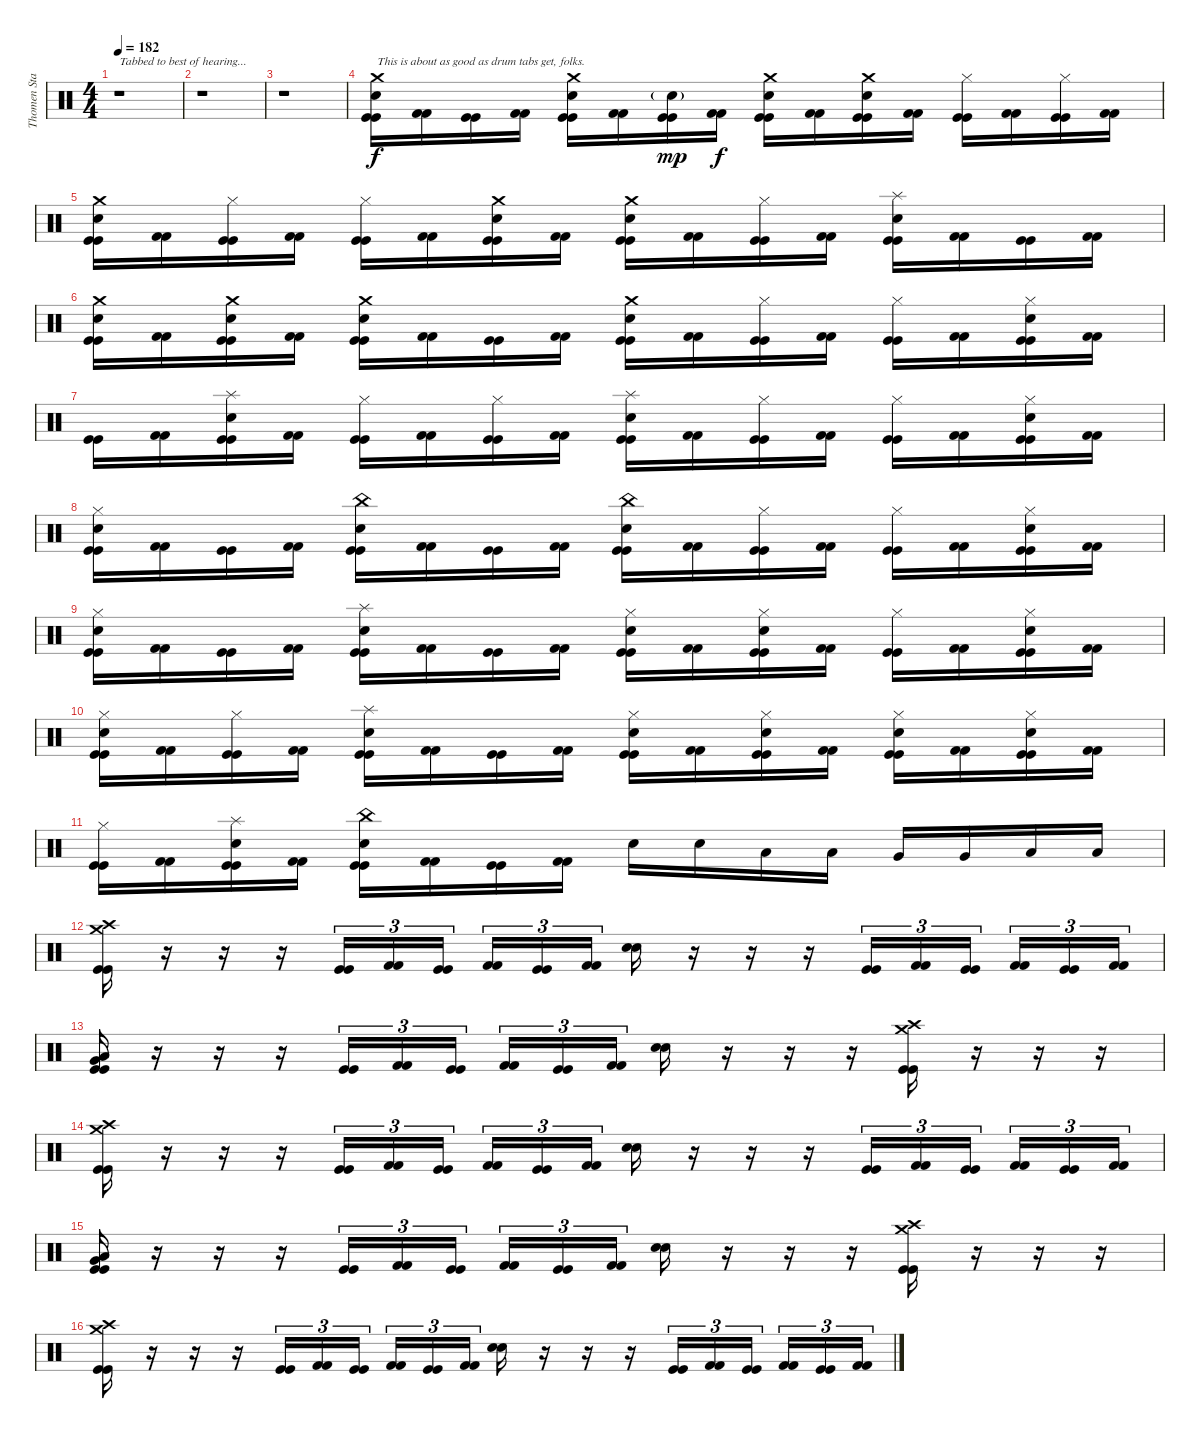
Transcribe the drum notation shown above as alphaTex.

\track ("Thomen Stauch" "Thomen Sta") {instrument percussion}
\staff {score}
\articulation defaults
\ts (4 4)
\tempo 182
\clef neutral
\ks c
r.1{txt "Tabbed to best of hearing..." dy f} |
r.1 |
r.1 |
("Crash medium (hit)" "Snare (hit) 2" "Kick (hit)" "Kick (hit)").16{txt "This is about as good as drum tabs get, folks."} ("Kick (hit) 2" "Kick (hit) 2").16 ("Kick (hit)" "Kick (hit)").16 ("Kick (hit) 2" "Kick (hit) 2").16 ("Crash medium (hit)" "Snare (hit) 2" "Kick (hit)" "Kick (hit)").16 ("Kick (hit) 2" "Kick (hit) 2").16 ("Snare (hit) 2"{g} "Kick (hit)" "Kick (hit)").16{dy mp} ("Kick (hit) 2" "Kick (hit) 2").16{dy f} ("Crash medium (hit)" "Snare (hit) 2" "Kick (hit)" "Kick (hit)").16 ("Kick (hit) 2" "Kick (hit) 2").16 ("Crash medium (hit)" "Snare (hit) 2" "Kick (hit)" "Kick (hit)").16 ("Kick (hit) 2" "Kick (hit) 2").16 ("Hi-Hat (closed)" "Kick (hit)" "Kick (hit)").16 ("Kick (hit) 2" "Kick (hit) 2").16 ("Hi-Hat (closed)" "Kick (hit)" "Kick (hit)").16 ("Kick (hit) 2" "Kick (hit) 2").16 |
("Crash medium (hit)" "Snare (hit) 2" "Kick (hit)" "Kick (hit)").16 ("Kick (hit) 2" "Kick (hit) 2").16 ("Hi-Hat (closed)" "Kick (hit)" "Kick (hit)").16 ("Kick (hit) 2" "Kick (hit) 2").16 ("Hi-Hat (closed)" "Kick (hit)" "Kick (hit)").16 ("Kick (hit) 2" "Kick (hit) 2").16 ("Crash medium (hit)" "Snare (hit) 2" "Kick (hit)" "Kick (hit)").16 ("Kick (hit) 2" "Kick (hit) 2").16 ("Crash medium (hit)" "Snare (hit) 2" "Kick (hit)" "Kick (hit)").16 ("Kick (hit) 2" "Kick (hit) 2").16 ("Hi-Hat (closed)" "Kick (hit)" "Kick (hit)").16 ("Kick (hit) 2" "Kick (hit) 2").16 ("Splash (hit)" "Snare (hit) 2" "Kick (hit)" "Kick (hit)").16 ("Kick (hit) 2" "Kick (hit) 2").16 ("Kick (hit)" "Kick (hit)").16 ("Kick (hit) 2" "Kick (hit) 2").16 |
("Crash medium (hit)" "Snare (hit) 2" "Kick (hit)" "Kick (hit)").16 ("Kick (hit) 2" "Kick (hit) 2").16 ("Crash medium (hit)" "Snare (hit) 2" "Kick (hit)" "Kick (hit)").16 ("Kick (hit) 2" "Kick (hit) 2").16 ("Crash medium (hit)" "Snare (hit) 2" "Kick (hit)" "Kick (hit)").16 ("Kick (hit) 2" "Kick (hit) 2").16 ("Kick (hit)" "Kick (hit)").16 ("Kick (hit) 2" "Kick (hit) 2").16 ("Crash medium (hit)" "Snare (hit) 2" "Kick (hit)" "Kick (hit)").16 ("Kick (hit) 2" "Kick (hit) 2").16 ("Hi-Hat (closed)" "Kick (hit)" "Kick (hit)").16 ("Kick (hit) 2" "Kick (hit) 2").16 ("Hi-Hat (closed)" "Kick (hit)" "Kick (hit)").16 ("Kick (hit) 2" "Kick (hit) 2").16 ("Hi-Hat (closed)" "Snare (hit) 2" "Kick (hit)" "Kick (hit)").16 ("Kick (hit) 2" "Kick (hit) 2").16 |
("Kick (hit)" "Kick (hit)").16 ("Kick (hit) 2" "Kick (hit) 2").16 ("Splash (hit)" "Snare (hit) 2" "Kick (hit)" "Kick (hit)").16 ("Kick (hit) 2" "Kick (hit) 2").16 ("Hi-Hat (closed)" "Kick (hit)" "Kick (hit)").16 ("Kick (hit) 2" "Kick (hit) 2").16 ("Hi-Hat (closed)" "Kick (hit)" "Kick (hit)").16 ("Kick (hit) 2" "Kick (hit) 2").16 ("Splash (hit)" "Snare (hit) 2" "Kick (hit)" "Kick (hit)").16 ("Kick (hit) 2" "Kick (hit) 2").16 ("Hi-Hat (closed)" "Kick (hit)" "Kick (hit)").16 ("Kick (hit) 2" "Kick (hit) 2").16 ("Hi-Hat (closed)" "Kick (hit)" "Kick (hit)").16 ("Kick (hit) 2" "Kick (hit) 2").16 ("Hi-Hat (closed)" "Snare (hit) 2" "Kick (hit)" "Kick (hit)").16 ("Kick (hit) 2" "Kick (hit) 2").16 |
("Hi-Hat (closed)" "Snare (hit) 2" "Kick (hit)" "Kick (hit)").16 ("Kick (hit) 2" "Kick (hit) 2").16 ("Kick (hit)" "Kick (hit)").16 ("Kick (hit) 2" "Kick (hit) 2").16 ("China (hit)" "Snare (hit) 2" "Kick (hit)" "Kick (hit)").16 ("Kick (hit) 2" "Kick (hit) 2").16 ("Kick (hit)" "Kick (hit)").16 ("Kick (hit) 2" "Kick (hit) 2").16 ("China (hit)" "Snare (hit) 2" "Kick (hit)" "Kick (hit)").16 ("Kick (hit) 2" "Kick (hit) 2").16 ("Hi-Hat (closed)" "Kick (hit)" "Kick (hit)").16 ("Kick (hit) 2" "Kick (hit) 2").16 ("Hi-Hat (closed)" "Kick (hit)" "Kick (hit)").16 ("Kick (hit) 2" "Kick (hit) 2").16 ("Hi-Hat (closed)" "Snare (hit) 2" "Kick (hit)" "Kick (hit)").16 ("Kick (hit) 2" "Kick (hit) 2").16 |
("Hi-Hat (closed)" "Snare (hit) 2" "Kick (hit)" "Kick (hit)").16 ("Kick (hit) 2" "Kick (hit) 2").16 ("Kick (hit)" "Kick (hit)").16 ("Kick (hit) 2" "Kick (hit) 2").16 ("Splash (hit)" "Snare (hit) 2" "Kick (hit)" "Kick (hit)").16 ("Kick (hit) 2" "Kick (hit) 2").16 ("Kick (hit)" "Kick (hit)").16 ("Kick (hit) 2" "Kick (hit) 2").16 ("Hi-Hat (closed)" "Snare (hit) 2" "Kick (hit)" "Kick (hit)").16 ("Kick (hit) 2" "Kick (hit) 2").16 ("Hi-Hat (closed)" "Snare (hit) 2" "Kick (hit)" "Kick (hit)").16 ("Kick (hit) 2" "Kick (hit) 2").16 ("Hi-Hat (closed)" "Kick (hit)" "Kick (hit)").16 ("Kick (hit) 2" "Kick (hit) 2").16 ("Hi-Hat (closed)" "Snare (hit) 2" "Kick (hit)" "Kick (hit)").16 ("Kick (hit) 2" "Kick (hit) 2").16 |
("Hi-Hat (closed)" "Snare (hit) 2" "Kick (hit)" "Kick (hit)").16 ("Kick (hit) 2" "Kick (hit) 2").16 ("Hi-Hat (closed)" "Kick (hit)" "Kick (hit)").16 ("Kick (hit) 2" "Kick (hit) 2").16 ("Splash (hit)" "Snare (hit) 2" "Kick (hit)" "Kick (hit)").16 ("Kick (hit) 2" "Kick (hit) 2").16 ("Kick (hit)" "Kick (hit)").16 ("Kick (hit) 2" "Kick (hit) 2").16 ("Hi-Hat (closed)" "Snare (hit) 2" "Kick (hit)" "Kick (hit)").16 ("Kick (hit) 2" "Kick (hit) 2").16 ("Hi-Hat (closed)" "Snare (hit) 2" "Kick (hit)" "Kick (hit)").16 ("Kick (hit) 2" "Kick (hit) 2").16 ("Hi-Hat (closed)" "Snare (hit) 2" "Kick (hit)" "Kick (hit)").16 ("Kick (hit) 2" "Kick (hit) 2").16 ("Hi-Hat (closed)" "Snare (hit) 2" "Kick (hit)" "Kick (hit)").16 ("Kick (hit) 2" "Kick (hit) 2").16 |
("Hi-Hat (closed)" "Kick (hit)" "Kick (hit)").16 ("Kick (hit) 2" "Kick (hit) 2").16 ("Splash (hit)" "Snare (hit) 2" "Kick (hit)" "Kick (hit)").16 ("Kick (hit) 2" "Kick (hit) 2").16 ("China (hit)" "Snare (hit) 2" "Kick (hit)" "Kick (hit)").16 ("Kick (hit) 2" "Kick (hit) 2").16 ("Kick (hit)" "Kick (hit)").16 ("Kick (hit) 2" "Kick (hit) 2").16 "Snare (hit) 2".16 "Snare (hit) 2".16 "Low Tom (hit)".16 "Low Tom (hit)".16 "Very Low Tom (hit)".16 "Very Low Tom (hit)".16 "Low Floor Tom (hit)".16 "Low Floor Tom (hit)".16 |
("Crash medium (hit)" "Crash high (hit)" "Kick (hit)" "Kick (hit)").16 r.16 r.16 r.16 ("Kick (hit)" "Kick (hit)").16{tu (3 2)} ("Kick (hit) 2" "Kick (hit) 2").16{tu (3 2)} ("Kick (hit)" "Kick (hit)").16{tu (3 2)} ("Kick (hit) 2" "Kick (hit) 2").16{tu (3 2)} ("Kick (hit)" "Kick (hit)").16{tu (3 2)} ("Kick (hit) 2" "Kick (hit) 2").16{tu (3 2)} ("Snare (hit) 2" "Snare (hit) 2").16 r.16 r.16 r.16 ("Kick (hit)" "Kick (hit)").16{tu (3 2)} ("Kick (hit) 2" "Kick (hit) 2").16{tu (3 2)} ("Kick (hit)" "Kick (hit)").16{tu (3 2)} ("Kick (hit) 2" "Kick (hit) 2").16{tu (3 2)} ("Kick (hit)" "Kick (hit)").16{tu (3 2)} ("Kick (hit) 2" "Kick (hit) 2").16{tu (3 2)} |
("Very Low Tom (hit)" "Low Tom (hit)" "Kick (hit)" "Kick (hit)").16 r.16 r.16 r.16 ("Kick (hit)" "Kick (hit)").16{tu (3 2)} ("Kick (hit) 2" "Kick (hit) 2").16{tu (3 2)} ("Kick (hit)" "Kick (hit)").16{tu (3 2)} ("Kick (hit) 2" "Kick (hit) 2").16{tu (3 2)} ("Kick (hit)" "Kick (hit)").16{tu (3 2)} ("Kick (hit) 2" "Kick (hit) 2").16{tu (3 2)} ("Snare (hit) 2" "Snare (hit) 2").16 r.16 r.16 r.16 ("Crash medium (hit)" "Crash high (hit)" "Kick (hit)" "Kick (hit)").16 r.16 r.16 r.16 |
("Crash medium (hit)" "Crash high (hit)" "Kick (hit)" "Kick (hit)").16 r.16 r.16 r.16 ("Kick (hit)" "Kick (hit)").16{tu (3 2)} ("Kick (hit) 2" "Kick (hit) 2").16{tu (3 2)} ("Kick (hit)" "Kick (hit)").16{tu (3 2)} ("Kick (hit) 2" "Kick (hit) 2").16{tu (3 2)} ("Kick (hit)" "Kick (hit)").16{tu (3 2)} ("Kick (hit) 2" "Kick (hit) 2").16{tu (3 2)} ("Snare (hit) 2" "Snare (hit) 2").16 r.16 r.16 r.16 ("Kick (hit)" "Kick (hit)").16{tu (3 2)} ("Kick (hit) 2" "Kick (hit) 2").16{tu (3 2)} ("Kick (hit)" "Kick (hit)").16{tu (3 2)} ("Kick (hit) 2" "Kick (hit) 2").16{tu (3 2)} ("Kick (hit)" "Kick (hit)").16{tu (3 2)} ("Kick (hit) 2" "Kick (hit) 2").16{tu (3 2)} |
("Very Low Tom (hit)" "Low Tom (hit)" "Kick (hit)" "Kick (hit)").16 r.16 r.16 r.16 ("Kick (hit)" "Kick (hit)").16{tu (3 2)} ("Kick (hit) 2" "Kick (hit) 2").16{tu (3 2)} ("Kick (hit)" "Kick (hit)").16{tu (3 2)} ("Kick (hit) 2" "Kick (hit) 2").16{tu (3 2)} ("Kick (hit)" "Kick (hit)").16{tu (3 2)} ("Kick (hit) 2" "Kick (hit) 2").16{tu (3 2)} ("Snare (hit) 2" "Snare (hit) 2").16 r.16 r.16 r.16 ("Crash medium (hit)" "Crash high (hit)" "Kick (hit)" "Kick (hit)").16 r.16 r.16 r.16 |
("Crash medium (hit)" "Crash high (hit)" "Kick (hit)" "Kick (hit)").16 r.16 r.16 r.16 ("Kick (hit)" "Kick (hit)").16{tu (3 2)} ("Kick (hit) 2" "Kick (hit) 2").16{tu (3 2)} ("Kick (hit)" "Kick (hit)").16{tu (3 2)} ("Kick (hit) 2" "Kick (hit) 2").16{tu (3 2)} ("Kick (hit)" "Kick (hit)").16{tu (3 2)} ("Kick (hit) 2" "Kick (hit) 2").16{tu (3 2)} ("Snare (hit) 2" "Snare (hit) 2").16 r.16 r.16 r.16 ("Kick (hit)" "Kick (hit)").16{tu (3 2)} ("Kick (hit) 2" "Kick (hit) 2").16{tu (3 2)} ("Kick (hit)" "Kick (hit)").16{tu (3 2)} ("Kick (hit) 2" "Kick (hit) 2").16{tu (3 2)} ("Kick (hit)" "Kick (hit)").16{tu (3 2)} ("Kick (hit) 2" "Kick (hit) 2").16{tu (3 2)}
